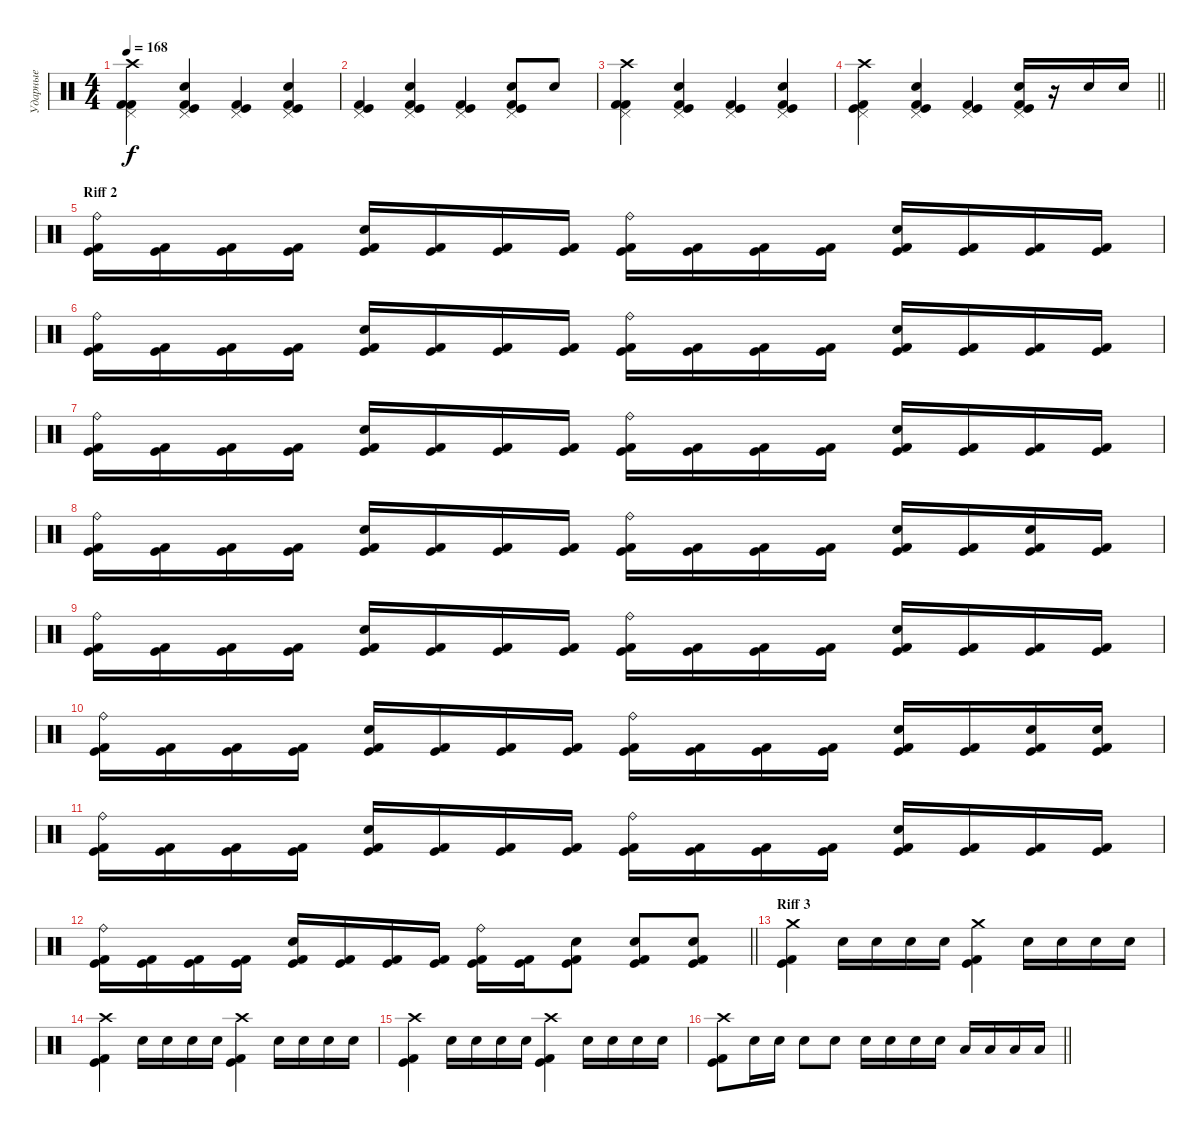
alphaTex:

\track ("Ударные" "Ударные") {instrument percussion}
\staff {score}
\articulation defaults
\ts (4 4)
\tempo 168
\clef neutral
\ks c
("Crash high (hit)" "Pedal Hi-Hat (hit)" "Kick (hit) 2" "Kick (hit) 2").4{dy f} ("Pedal Hi-Hat (hit)" "Electric Snare (hit)" "Kick (hit)" "Kick (hit) 2").4 ("Pedal Hi-Hat (hit)" "Kick (hit)" "Kick (hit) 2").4 ("Pedal Hi-Hat (hit)" "Electric Snare (hit)" "Kick (hit)" "Kick (hit) 2").4 |
("Pedal Hi-Hat (hit)" "Kick (hit)" "Kick (hit) 2").4 ("Pedal Hi-Hat (hit)" "Electric Snare (hit)" "Kick (hit)" "Kick (hit) 2").4 ("Pedal Hi-Hat (hit)" "Kick (hit)" "Kick (hit) 2").4 ("Pedal Hi-Hat (hit)" "Electric Snare (hit)" "Kick (hit)" "Kick (hit) 2").8 "Electric Snare (hit)".8 |
("Crash high (hit)" "Pedal Hi-Hat (hit)" "Kick (hit) 2" "Kick (hit) 2").4 ("Pedal Hi-Hat (hit)" "Electric Snare (hit)" "Kick (hit)" "Kick (hit) 2").4 ("Pedal Hi-Hat (hit)" "Kick (hit)" "Kick (hit) 2").4 ("Pedal Hi-Hat (hit)" "Electric Snare (hit)" "Kick (hit)" "Kick (hit) 2").4 |
\barLineRight lightlight
("Crash high (hit)" "Pedal Hi-Hat (hit)" "Kick (hit)" "Kick (hit) 2").4 ("Pedal Hi-Hat (hit)" "Electric Snare (hit)" "Kick (hit)" "Kick (hit) 2").4 ("Pedal Hi-Hat (hit)" "Kick (hit)" "Kick (hit) 2").4 ("Pedal Hi-Hat (hit)" "Electric Snare (hit)" "Kick (hit)" "Kick (hit) 2").16 r.16 "Electric Snare (hit)".16 "Electric Snare (hit)".16 |
\section ("" "Riff 2")
("Ride (bell)" "Kick (hit)" "Kick (hit) 2").16 ("Kick (hit)" "Kick (hit) 2").16 ("Kick (hit)" "Kick (hit) 2").16 ("Kick (hit)" "Kick (hit) 2").16 ("Electric Snare (hit)" "Kick (hit)" "Kick (hit) 2").16 ("Kick (hit)" "Kick (hit) 2").16 ("Kick (hit)" "Kick (hit) 2").16 ("Kick (hit)" "Kick (hit) 2").16 ("Ride (bell)" "Kick (hit)" "Kick (hit) 2").16 ("Kick (hit)" "Kick (hit) 2").16 ("Kick (hit)" "Kick (hit) 2").16 ("Kick (hit)" "Kick (hit) 2").16 ("Electric Snare (hit)" "Kick (hit)" "Kick (hit) 2").16 ("Kick (hit)" "Kick (hit) 2").16 ("Kick (hit)" "Kick (hit) 2").16 ("Kick (hit)" "Kick (hit) 2").16 |
("Ride (bell)" "Kick (hit)" "Kick (hit) 2").16 ("Kick (hit)" "Kick (hit) 2").16 ("Kick (hit)" "Kick (hit) 2").16 ("Kick (hit)" "Kick (hit) 2").16 ("Electric Snare (hit)" "Kick (hit)" "Kick (hit) 2").16 ("Kick (hit)" "Kick (hit) 2").16 ("Kick (hit)" "Kick (hit) 2").16 ("Kick (hit)" "Kick (hit) 2").16 ("Ride (bell)" "Kick (hit)" "Kick (hit) 2").16 ("Kick (hit)" "Kick (hit) 2").16 ("Kick (hit)" "Kick (hit) 2").16 ("Kick (hit)" "Kick (hit) 2").16 ("Electric Snare (hit)" "Kick (hit)" "Kick (hit) 2").16 ("Kick (hit)" "Kick (hit) 2").16 ("Kick (hit)" "Kick (hit) 2").16 ("Kick (hit)" "Kick (hit) 2").16 |
("Ride (bell)" "Kick (hit)" "Kick (hit) 2").16 ("Kick (hit)" "Kick (hit) 2").16 ("Kick (hit)" "Kick (hit) 2").16 ("Kick (hit)" "Kick (hit) 2").16 ("Electric Snare (hit)" "Kick (hit)" "Kick (hit) 2").16 ("Kick (hit)" "Kick (hit) 2").16 ("Kick (hit)" "Kick (hit) 2").16 ("Kick (hit)" "Kick (hit) 2").16 ("Ride (bell)" "Kick (hit)" "Kick (hit) 2").16 ("Kick (hit)" "Kick (hit) 2").16 ("Kick (hit)" "Kick (hit) 2").16 ("Kick (hit)" "Kick (hit) 2").16 ("Electric Snare (hit)" "Kick (hit)" "Kick (hit) 2").16 ("Kick (hit)" "Kick (hit) 2").16 ("Kick (hit)" "Kick (hit) 2").16 ("Kick (hit)" "Kick (hit) 2").16 |
("Ride (bell)" "Kick (hit)" "Kick (hit) 2").16 ("Kick (hit)" "Kick (hit) 2").16 ("Kick (hit)" "Kick (hit) 2").16 ("Kick (hit)" "Kick (hit) 2").16 ("Electric Snare (hit)" "Kick (hit)" "Kick (hit) 2").16 ("Kick (hit)" "Kick (hit) 2").16 ("Kick (hit)" "Kick (hit) 2").16 ("Kick (hit)" "Kick (hit) 2").16 ("Ride (bell)" "Kick (hit)" "Kick (hit) 2").16 ("Kick (hit)" "Kick (hit) 2").16 ("Kick (hit)" "Kick (hit) 2").16 ("Kick (hit)" "Kick (hit) 2").16 ("Electric Snare (hit)" "Kick (hit)" "Kick (hit) 2").16 ("Kick (hit)" "Kick (hit) 2").16 ("Electric Snare (hit)" "Kick (hit)" "Kick (hit) 2").16 ("Kick (hit)" "Kick (hit) 2").16 |
("Ride (bell)" "Kick (hit)" "Kick (hit) 2").16 ("Kick (hit)" "Kick (hit) 2").16 ("Kick (hit)" "Kick (hit) 2").16 ("Kick (hit)" "Kick (hit) 2").16 ("Electric Snare (hit)" "Kick (hit)" "Kick (hit) 2").16 ("Kick (hit)" "Kick (hit) 2").16 ("Kick (hit)" "Kick (hit) 2").16 ("Kick (hit)" "Kick (hit) 2").16 ("Ride (bell)" "Kick (hit)" "Kick (hit) 2").16 ("Kick (hit)" "Kick (hit) 2").16 ("Kick (hit)" "Kick (hit) 2").16 ("Kick (hit)" "Kick (hit) 2").16 ("Electric Snare (hit)" "Kick (hit)" "Kick (hit) 2").16 ("Kick (hit)" "Kick (hit) 2").16 ("Kick (hit)" "Kick (hit) 2").16 ("Kick (hit)" "Kick (hit) 2").16 |
("Ride (bell)" "Kick (hit)" "Kick (hit) 2").16 ("Kick (hit)" "Kick (hit) 2").16 ("Kick (hit)" "Kick (hit) 2").16 ("Kick (hit)" "Kick (hit) 2").16 ("Electric Snare (hit)" "Kick (hit)" "Kick (hit) 2").16 ("Kick (hit)" "Kick (hit) 2").16 ("Kick (hit)" "Kick (hit) 2").16 ("Kick (hit)" "Kick (hit) 2").16 ("Ride (bell)" "Kick (hit)" "Kick (hit) 2").16 ("Kick (hit)" "Kick (hit) 2").16 ("Kick (hit)" "Kick (hit) 2").16 ("Kick (hit)" "Kick (hit) 2").16 ("Electric Snare (hit)" "Kick (hit)" "Kick (hit) 2").16 ("Kick (hit)" "Kick (hit) 2").16 ("Electric Snare (hit)" "Kick (hit)" "Kick (hit) 2").16 ("Electric Snare (hit)" "Kick (hit)" "Kick (hit) 2").16 |
("Ride (bell)" "Kick (hit)" "Kick (hit) 2").16 ("Kick (hit)" "Kick (hit) 2").16 ("Kick (hit)" "Kick (hit) 2").16 ("Kick (hit)" "Kick (hit) 2").16 ("Electric Snare (hit)" "Kick (hit)" "Kick (hit) 2").16 ("Kick (hit)" "Kick (hit) 2").16 ("Kick (hit)" "Kick (hit) 2").16 ("Kick (hit)" "Kick (hit) 2").16 ("Ride (bell)" "Kick (hit)" "Kick (hit) 2").16 ("Kick (hit)" "Kick (hit) 2").16 ("Kick (hit)" "Kick (hit) 2").16 ("Kick (hit)" "Kick (hit) 2").16 ("Electric Snare (hit)" "Kick (hit)" "Kick (hit) 2").16 ("Kick (hit)" "Kick (hit) 2").16 ("Kick (hit)" "Kick (hit) 2").16 ("Kick (hit)" "Kick (hit) 2").16 |
\barLineRight lightlight
("Ride (bell)" "Kick (hit)" "Kick (hit) 2").16 ("Kick (hit)" "Kick (hit) 2").16 ("Kick (hit)" "Kick (hit) 2").16 ("Kick (hit)" "Kick (hit) 2").16 ("Electric Snare (hit)" "Kick (hit)" "Kick (hit) 2").16 ("Kick (hit)" "Kick (hit) 2").16 ("Kick (hit)" "Kick (hit) 2").16 ("Kick (hit)" "Kick (hit) 2").16 ("Ride (bell)" "Kick (hit)" "Kick (hit) 2").16 ("Kick (hit)" "Kick (hit) 2").16 ("Electric Snare (hit)" "Kick (hit)" "Kick (hit) 2").8 ("Electric Snare (hit)" "Kick (hit)" "Kick (hit) 2").8 ("Electric Snare (hit)" "Kick (hit)" "Kick (hit) 2").8 |
\section ("" "Riff 3")
("Crash medium (hit)" "Kick (hit)" "Kick (hit) 2").4 "Electric Snare (hit)".16 "Electric Snare (hit)".16 "Electric Snare (hit)".16 "Electric Snare (hit)".16 ("Crash medium (hit)" "Kick (hit)" "Kick (hit) 2").4 "Electric Snare (hit)".16 "Electric Snare (hit)".16 "Electric Snare (hit)".16 "Electric Snare (hit)".16 |
("Crash high (hit)" "Kick (hit)" "Kick (hit) 2").4 "Electric Snare (hit)".16 "Electric Snare (hit)".16 "Electric Snare (hit)".16 "Electric Snare (hit)".16 ("Crash high (hit)" "Kick (hit)" "Kick (hit) 2").4 "Electric Snare (hit)".16 "Electric Snare (hit)".16 "Electric Snare (hit)".16 "Electric Snare (hit)".16 |
("Crash high (hit)" "Kick (hit)" "Kick (hit) 2").4 "Electric Snare (hit)".16 "Electric Snare (hit)".16 "Electric Snare (hit)".16 "Electric Snare (hit)".16 ("Crash high (hit)" "Kick (hit)" "Kick (hit) 2").4 "Electric Snare (hit)".16 "Electric Snare (hit)".16 "Electric Snare (hit)".16 "Electric Snare (hit)".16 |
\barLineRight lightlight
("Crash high (hit)" "Kick (hit)" "Kick (hit) 2").8 "Electric Snare (hit)".16 "Electric Snare (hit)".16 "Electric Snare (hit)".8 "Electric Snare (hit)".8 "Electric Snare (hit)".16 "Electric Snare (hit)".16 "Electric Snare (hit)".16 "Electric Snare (hit)".16 "Low Tom (hit)".16 "Low Tom (hit)".16 "Low Tom (hit)".16 "Low Tom (hit)".16
